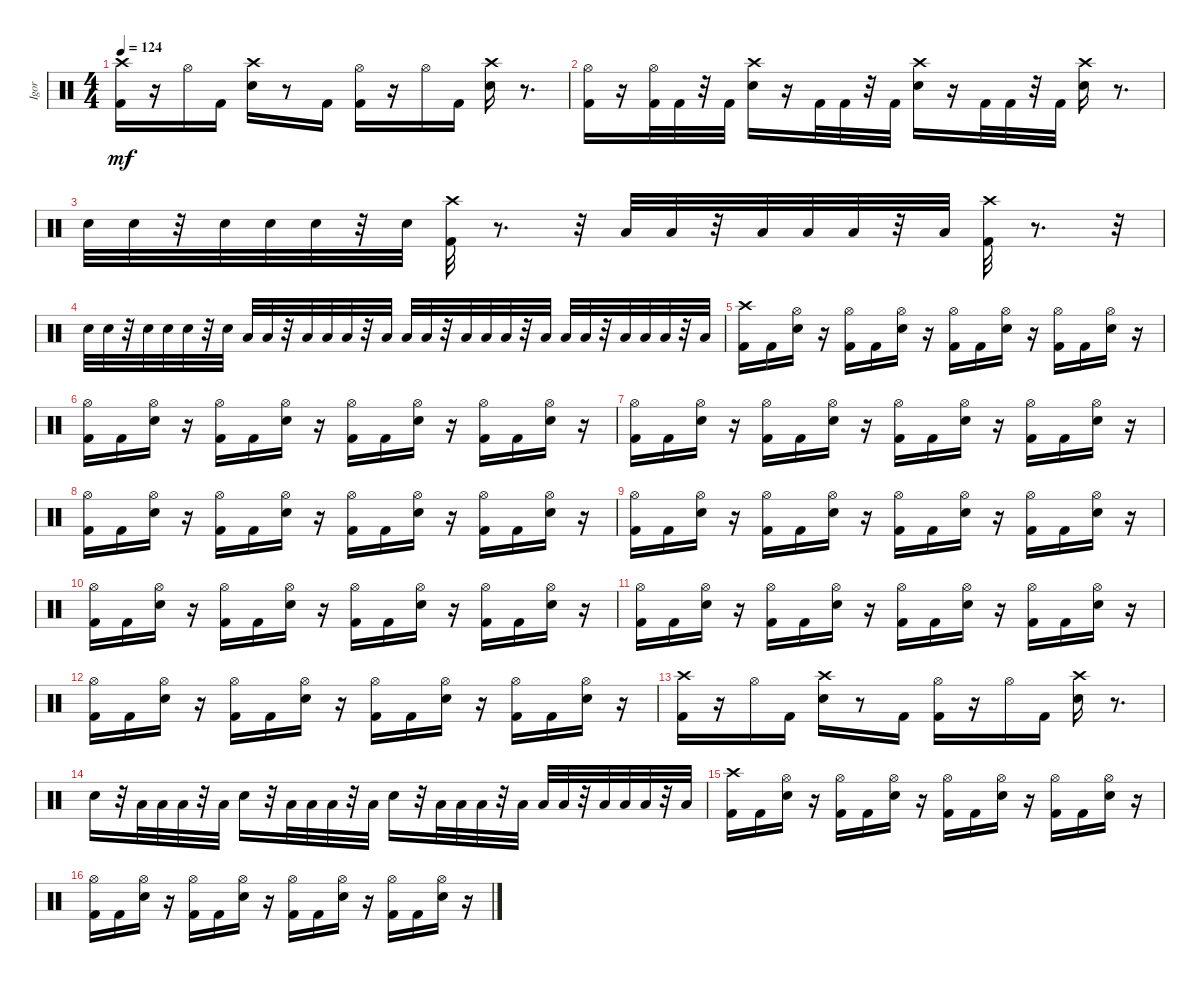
\track ("Igor" "Igor") {instrument percussion}
\staff {score}
\articulation defaults
\ts (4 4)
\tempo 124
\clef neutral
\ks c
("Crash high (hit)" "Kick (hit) 2").16{dy mf} r.16 "Hi-Hat (open)".16 "Kick (hit) 2".16 ("Snare (hit) 2" "Crash high (hit)").16 r.8 "Kick (hit) 2".16 ("Hi-Hat (open)" "Kick (hit) 2").16 r.16 "Hi-Hat (open)".16 "Kick (hit) 2".16 ("Snare (hit) 2" "Crash high (hit)").16 r.8{d} |
("Hi-Hat (open)" "Kick (hit) 2").16 r.16 ("Hi-Hat (open)" "Kick (hit) 2").32 "Kick (hit) 2".32 r.32 "Kick (hit) 2".32 ("Snare (hit) 2" "Crash high (hit)").16 r.16 "Kick (hit) 2".32 "Kick (hit) 2".32 r.32 "Kick (hit) 2".32 ("Crash high (hit)" "Snare (hit) 2").16 r.16 "Kick (hit) 2".32 "Kick (hit) 2".32 r.32 "Kick (hit) 2".32 ("Crash high (hit)" "Snare (hit) 2").16 r.8{d} |
"Snare (hit) 2".32 "Snare (hit) 2".32 r.32 "Snare (hit) 2".32 "Snare (hit) 2".32 "Snare (hit) 2".32 r.32 "Snare (hit) 2".32 ("Kick (hit) 2" "Crash high (hit)").32 r.8{d} r.32 "Low Tom (hit)".32 "Low Tom (hit)".32 r.32 "Low Tom (hit)".32 "Low Tom (hit)".32 "Low Tom (hit)".32 r.32 "Low Tom (hit)".32 ("Crash high (hit)" "Kick (hit) 2").32 r.8{d} r.32 |
"Snare (hit) 2".32 "Snare (hit) 2".32 r.32 "Snare (hit) 2".32 "Snare (hit) 2".32 "Snare (hit) 2".32 r.32 "Snare (hit) 2".32 "Low Tom (hit)".32 "Low Tom (hit)".32 r.32 "Low Tom (hit)".32 "Low Tom (hit)".32 "Low Tom (hit)".32 r.32 "Low Tom (hit)".32 "Low Floor Tom (hit)".32 "Low Floor Tom (hit)".32 r.32 "Low Floor Tom (hit)".32 "Low Tom (hit)".32 "Low Tom (hit)".32 r.32 "Low Tom (hit)".32 "Low Floor Tom (hit)".32 "Low Floor Tom (hit)".32 r.32 "Low Floor Tom (hit)".32 "Low Floor Tom (hit)".32 "Low Floor Tom (hit)".32 r.32 "Low Floor Tom (hit)".32 |
("Crash high (hit)" "Kick (hit) 2").16 "Kick (hit) 2".16 ("Snare (hit) 2" "Hi-Hat (open)").16 r.16 ("Kick (hit) 2" "Hi-Hat (open)").16 "Kick (hit) 2".16 ("Snare (hit) 2" "Hi-Hat (open)").16 r.16 ("Kick (hit) 2" "Hi-Hat (open)").16 "Kick (hit) 2".16 ("Snare (hit) 2" "Hi-Hat (open)").16 r.16 ("Kick (hit) 2" "Hi-Hat (open)").16 "Kick (hit) 2".16 ("Snare (hit) 2" "Hi-Hat (open)").16 r.16 |
("Kick (hit) 2" "Hi-Hat (open)").16 "Kick (hit) 2".16 ("Snare (hit) 2" "Hi-Hat (open)").16 r.16 ("Kick (hit) 2" "Hi-Hat (open)").16 "Kick (hit) 2".16 ("Snare (hit) 2" "Hi-Hat (open)").16 r.16 ("Kick (hit) 2" "Hi-Hat (open)").16 "Kick (hit) 2".16 ("Snare (hit) 2" "Hi-Hat (open)").16 r.16 ("Kick (hit) 2" "Hi-Hat (open)").16 "Kick (hit) 2".16 ("Snare (hit) 2" "Hi-Hat (open)").16 r.16 |
("Kick (hit) 2" "Hi-Hat (open)").16 "Kick (hit) 2".16 ("Snare (hit) 2" "Hi-Hat (open)").16 r.16 ("Kick (hit) 2" "Hi-Hat (open)").16 "Kick (hit) 2".16 ("Snare (hit) 2" "Hi-Hat (open)").16 r.16 ("Kick (hit) 2" "Hi-Hat (open)").16 "Kick (hit) 2".16 ("Snare (hit) 2" "Hi-Hat (open)").16 r.16 ("Kick (hit) 2" "Hi-Hat (open)").16 "Kick (hit) 2".16 ("Snare (hit) 2" "Hi-Hat (open)").16 r.16 |
("Kick (hit) 2" "Hi-Hat (open)").16 "Kick (hit) 2".16 ("Snare (hit) 2" "Hi-Hat (open)").16 r.16 ("Kick (hit) 2" "Hi-Hat (open)").16 "Kick (hit) 2".16 ("Snare (hit) 2" "Hi-Hat (open)").16 r.16 ("Kick (hit) 2" "Hi-Hat (open)").16 "Kick (hit) 2".16 ("Snare (hit) 2" "Hi-Hat (open)").16 r.16 ("Kick (hit) 2" "Hi-Hat (open)").16 "Kick (hit) 2".16 ("Snare (hit) 2" "Hi-Hat (open)").16 r.16 |
("Kick (hit) 2" "Hi-Hat (open)").16 "Kick (hit) 2".16 ("Snare (hit) 2" "Hi-Hat (open)").16 r.16 ("Kick (hit) 2" "Hi-Hat (open)").16 "Kick (hit) 2".16 ("Snare (hit) 2" "Hi-Hat (open)").16 r.16 ("Kick (hit) 2" "Hi-Hat (open)").16 "Kick (hit) 2".16 ("Snare (hit) 2" "Hi-Hat (open)").16 r.16 ("Kick (hit) 2" "Hi-Hat (open)").16 "Kick (hit) 2".16 ("Snare (hit) 2" "Hi-Hat (open)").16 r.16 |
("Kick (hit) 2" "Hi-Hat (open)").16 "Kick (hit) 2".16 ("Snare (hit) 2" "Hi-Hat (open)").16 r.16 ("Kick (hit) 2" "Hi-Hat (open)").16 "Kick (hit) 2".16 ("Snare (hit) 2" "Hi-Hat (open)").16 r.16 ("Kick (hit) 2" "Hi-Hat (open)").16 "Kick (hit) 2".16 ("Snare (hit) 2" "Hi-Hat (open)").16 r.16 ("Kick (hit) 2" "Hi-Hat (open)").16 "Kick (hit) 2".16 ("Snare (hit) 2" "Hi-Hat (open)").16 r.16 |
("Kick (hit) 2" "Hi-Hat (open)").16 "Kick (hit) 2".16 ("Snare (hit) 2" "Hi-Hat (open)").16 r.16 ("Kick (hit) 2" "Hi-Hat (open)").16 "Kick (hit) 2".16 ("Snare (hit) 2" "Hi-Hat (open)").16 r.16 ("Kick (hit) 2" "Hi-Hat (open)").16 "Kick (hit) 2".16 ("Snare (hit) 2" "Hi-Hat (open)").16 r.16 ("Kick (hit) 2" "Hi-Hat (open)").16 "Kick (hit) 2".16 ("Snare (hit) 2" "Hi-Hat (open)").16 r.16 |
("Kick (hit) 2" "Hi-Hat (open)").16 "Kick (hit) 2".16 ("Snare (hit) 2" "Hi-Hat (open)").16 r.16 ("Kick (hit) 2" "Hi-Hat (open)").16 "Kick (hit) 2".16 ("Snare (hit) 2" "Hi-Hat (open)").16 r.16 ("Kick (hit) 2" "Hi-Hat (open)").16 "Kick (hit) 2".16 ("Snare (hit) 2" "Hi-Hat (open)").16 r.16 ("Kick (hit) 2" "Hi-Hat (open)").16 "Kick (hit) 2".16 ("Snare (hit) 2" "Hi-Hat (open)").16 r.16 |
("Crash high (hit)" "Kick (hit) 2").16 r.16 "Hi-Hat (open)".16 "Kick (hit) 2".16 ("Snare (hit) 2" "Crash high (hit)").16 r.8 "Kick (hit) 2".16 ("Hi-Hat (open)" "Kick (hit) 2").16 r.16 "Hi-Hat (open)".16 "Kick (hit) 2".16 ("Snare (hit) 2" "Crash high (hit)").16 r.8{d} |
"Snare (hit) 2".16 r.32 "Low Tom (hit)".32 "Low Tom (hit)".32 "Low Tom (hit)".32 r.32 "Low Tom (hit)".32 "Snare (hit) 2".16 r.32 "Low Floor Tom (hit)".32 "Low Floor Tom (hit)".32 "Low Floor Tom (hit)".32 r.32 "Low Floor Tom (hit)".32 "Snare (hit) 2".16 r.32 "Low Tom (hit)".32 "Low Tom (hit)".32 "Low Tom (hit)".32 r.32 "Low Tom (hit)".32 "Low Floor Tom (hit)".32 "Low Floor Tom (hit)".32 r.32 "Low Floor Tom (hit)".32 "Low Floor Tom (hit)".32 "Low Floor Tom (hit)".32 r.32 "Low Floor Tom (hit)".32 |
("Kick (hit) 2" "Crash high (hit)").16 "Kick (hit) 2".16 ("Snare (hit) 2" "Hi-Hat (open)").16 r.16 ("Kick (hit) 2" "Hi-Hat (open)").16 "Kick (hit) 2".16 ("Snare (hit) 2" "Hi-Hat (open)").16 r.16 ("Kick (hit) 2" "Hi-Hat (open)").16 "Kick (hit) 2".16 ("Snare (hit) 2" "Hi-Hat (open)").16 r.16 ("Kick (hit) 2" "Hi-Hat (open)").16 "Kick (hit) 2".16 ("Snare (hit) 2" "Hi-Hat (open)").16 r.16 |
("Kick (hit) 2" "Hi-Hat (open)").16 "Kick (hit) 2".16 ("Snare (hit) 2" "Hi-Hat (open)").16 r.16 ("Kick (hit) 2" "Hi-Hat (open)").16 "Kick (hit) 2".16 ("Snare (hit) 2" "Hi-Hat (open)").16 r.16 ("Kick (hit) 2" "Hi-Hat (open)").16 "Kick (hit) 2".16 ("Snare (hit) 2" "Hi-Hat (open)").16 r.16 ("Kick (hit) 2" "Hi-Hat (open)").16 "Kick (hit) 2".16 ("Snare (hit) 2" "Hi-Hat (open)").16 r.16
